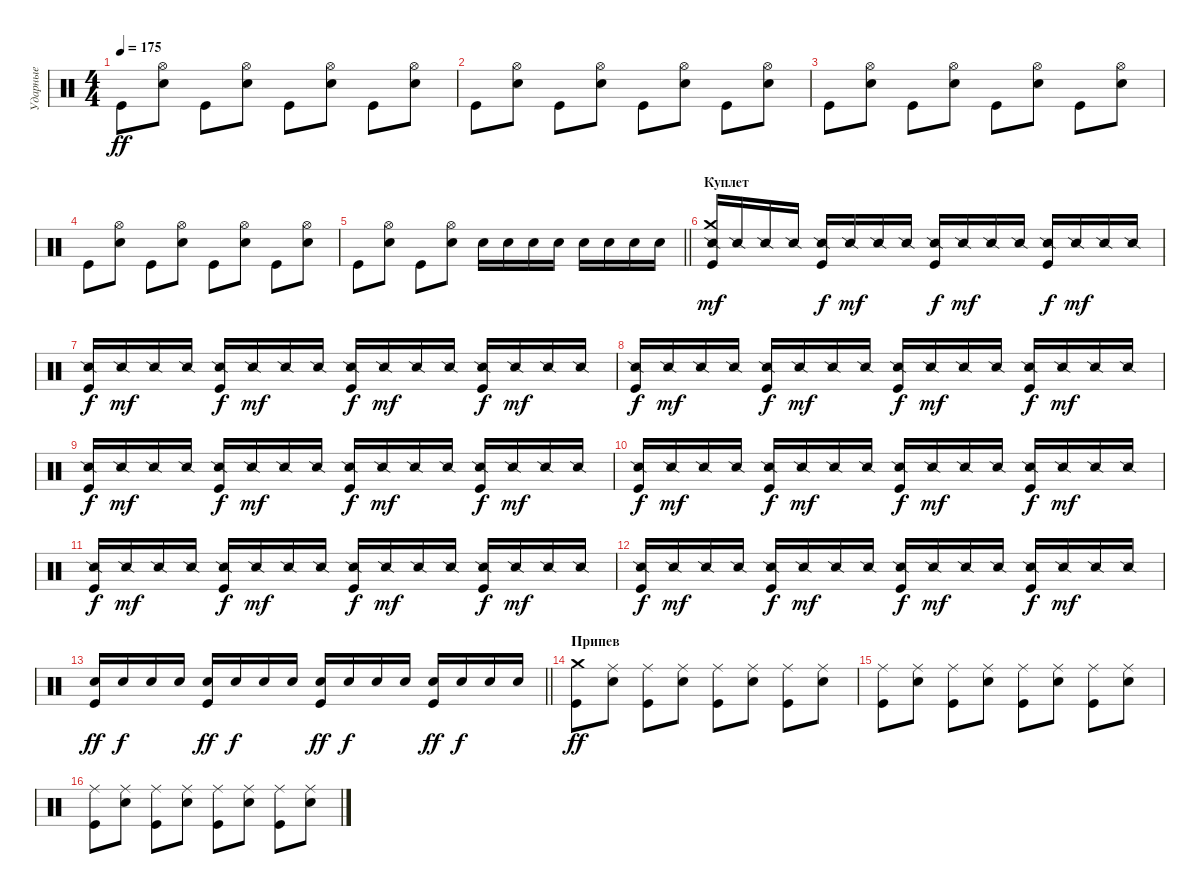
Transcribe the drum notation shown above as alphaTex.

\track ("Ударные" "Ударные") {instrument percussion}
\staff {score}
\articulation defaults
\ts (4 4)
\tempo 175
\clef neutral
\ks c "Kick (hit)".8{dy ff}
("Hi-Hat (open)" "Electric Snare (hit)").8 "Kick (hit)".8 ("Hi-Hat (open)" "Electric Snare (hit)").8 "Kick (hit)".8 ("Hi-Hat (open)" "Electric Snare (hit)").8 "Kick (hit)".8 ("Hi-Hat (open)" "Electric Snare (hit)").8 |
"Kick (hit)".8 ("Hi-Hat (open)" "Electric Snare (hit)").8 "Kick (hit)".8 ("Hi-Hat (open)" "Electric Snare (hit)").8 "Kick (hit)".8 ("Hi-Hat (open)" "Electric Snare (hit)").8 "Kick (hit)".8 ("Hi-Hat (open)" "Electric Snare (hit)").8 |
"Kick (hit)".8 ("Hi-Hat (open)" "Electric Snare (hit)").8 "Kick (hit)".8 ("Hi-Hat (open)" "Electric Snare (hit)").8 "Kick (hit)".8 ("Hi-Hat (open)" "Electric Snare (hit)").8 "Kick (hit)".8 ("Hi-Hat (open)" "Electric Snare (hit)").8 |
"Kick (hit)".8 ("Hi-Hat (open)" "Electric Snare (hit)").8 "Kick (hit)".8 ("Hi-Hat (open)" "Electric Snare (hit)").8 "Kick (hit)".8 ("Hi-Hat (open)" "Electric Snare (hit)").8 "Kick (hit)".8 ("Hi-Hat (open)" "Electric Snare (hit)").8 |
\barLineRight lightlight "Kick (hit)".8
("Hi-Hat (open)" "Electric Snare (hit)").8 "Kick (hit)".8 ("Hi-Hat (open)" "Electric Snare (hit)").8 "Electric Snare (hit)".16 "Electric Snare (hit)".16 "Electric Snare (hit)".16 "Electric Snare (hit)".16 "Electric Snare (hit)".16 "Electric Snare (hit)".16 "Electric Snare (hit)".16 "Electric Snare (hit)".16 |
\section ("" "Куплет")
("Crash medium (hit)" "Snare (side stick) 2" "Kick (hit)").16{dy mf} "Snare (side stick) 2".16 "Snare (side stick) 2".16 "Snare (side stick) 2".16 ("Snare (side stick) 2" "Kick (hit)").16{dy f} "Snare (side stick) 2".16{dy mf} "Snare (side stick) 2".16 "Snare (side stick) 2".16 ("Snare (side stick) 2" "Kick (hit)").16{dy f} "Snare (side stick) 2".16{dy mf} "Snare (side stick) 2".16 "Snare (side stick) 2".16 ("Snare (side stick) 2" "Kick (hit)").16{dy f} "Snare (side stick) 2".16{dy mf} "Snare (side stick) 2".16 "Snare (side stick) 2".16 |
("Snare (side stick) 2" "Kick (hit)").16{dy f} "Snare (side stick) 2".16{dy mf} "Snare (side stick) 2".16 "Snare (side stick) 2".16 ("Snare (side stick) 2" "Kick (hit)").16{dy f} "Snare (side stick) 2".16{dy mf} "Snare (side stick) 2".16 "Snare (side stick) 2".16 ("Snare (side stick) 2" "Kick (hit)").16{dy f} "Snare (side stick) 2".16{dy mf} "Snare (side stick) 2".16 "Snare (side stick) 2".16 ("Snare (side stick) 2" "Kick (hit)").16{dy f} "Snare (side stick) 2".16{dy mf} "Snare (side stick) 2".16 "Snare (side stick) 2".16 |
("Snare (side stick) 2" "Kick (hit)").16{dy f} "Snare (side stick) 2".16{dy mf} "Snare (side stick) 2".16 "Snare (side stick) 2".16 ("Snare (side stick) 2" "Kick (hit)").16{dy f} "Snare (side stick) 2".16{dy mf} "Snare (side stick) 2".16 "Snare (side stick) 2".16 ("Snare (side stick) 2" "Kick (hit)").16{dy f} "Snare (side stick) 2".16{dy mf} "Snare (side stick) 2".16 "Snare (side stick) 2".16 ("Snare (side stick) 2" "Kick (hit)").16{dy f} "Snare (side stick) 2".16{dy mf} "Snare (side stick) 2".16 "Snare (side stick) 2".16 |
("Snare (side stick) 2" "Kick (hit)").16{dy f} "Snare (side stick) 2".16{dy mf} "Snare (side stick) 2".16 "Snare (side stick) 2".16 ("Snare (side stick) 2" "Kick (hit)").16{dy f} "Snare (side stick) 2".16{dy mf} "Snare (side stick) 2".16 "Snare (side stick) 2".16 ("Snare (side stick) 2" "Kick (hit)").16{dy f} "Snare (side stick) 2".16{dy mf} "Snare (side stick) 2".16 "Snare (side stick) 2".16 ("Snare (side stick) 2" "Kick (hit)").16{dy f} "Snare (side stick) 2".16{dy mf} "Snare (side stick) 2".16 "Snare (side stick) 2".16 |
("Snare (side stick) 2" "Kick (hit)").16{dy f} "Snare (side stick) 2".16{dy mf} "Snare (side stick) 2".16 "Snare (side stick) 2".16 ("Snare (side stick) 2" "Kick (hit)").16{dy f} "Snare (side stick) 2".16{dy mf} "Snare (side stick) 2".16 "Snare (side stick) 2".16 ("Snare (side stick) 2" "Kick (hit)").16{dy f} "Snare (side stick) 2".16{dy mf} "Snare (side stick) 2".16 "Snare (side stick) 2".16 ("Snare (side stick) 2" "Kick (hit)").16{dy f} "Snare (side stick) 2".16{dy mf} "Snare (side stick) 2".16 "Snare (side stick) 2".16 |
("Snare (side stick) 2" "Kick (hit)").16{dy f} "Snare (side stick) 2".16{dy mf} "Snare (side stick) 2".16 "Snare (side stick) 2".16 ("Snare (side stick) 2" "Kick (hit)").16{dy f} "Snare (side stick) 2".16{dy mf} "Snare (side stick) 2".16 "Snare (side stick) 2".16 ("Snare (side stick) 2" "Kick (hit)").16{dy f} "Snare (side stick) 2".16{dy mf} "Snare (side stick) 2".16 "Snare (side stick) 2".16 ("Snare (side stick) 2" "Kick (hit)").16{dy f} "Snare (side stick) 2".16{dy mf} "Snare (side stick) 2".16 "Snare (side stick) 2".16 |
("Snare (side stick) 2" "Kick (hit)").16{dy f} "Snare (side stick) 2".16{dy mf} "Snare (side stick) 2".16 "Snare (side stick) 2".16 ("Snare (side stick) 2" "Kick (hit)").16{dy f} "Snare (side stick) 2".16{dy mf} "Snare (side stick) 2".16 "Snare (side stick) 2".16 ("Snare (side stick) 2" "Kick (hit)").16{dy f} "Snare (side stick) 2".16{dy mf} "Snare (side stick) 2".16 "Snare (side stick) 2".16 ("Snare (side stick) 2" "Kick (hit)").16{dy f} "Snare (side stick) 2".16{dy mf} "Snare (side stick) 2".16 "Snare (side stick) 2".16 |
\barLineRight lightlight
("Electric Snare (hit)" "Kick (hit)").16{dy ff} "Electric Snare (hit)".16{dy f} "Electric Snare (hit)".16 "Electric Snare (hit)".16 ("Electric Snare (hit)" "Kick (hit)").16{dy ff} "Electric Snare (hit)".16{dy f} "Electric Snare (hit)".16 "Electric Snare (hit)".16 ("Electric Snare (hit)" "Kick (hit)").16{dy ff} "Electric Snare (hit)".16{dy f} "Electric Snare (hit)".16 "Electric Snare (hit)".16 ("Electric Snare (hit)" "Kick (hit)").16{dy ff} "Electric Snare (hit)".16{dy f} "Electric Snare (hit)".16 "Electric Snare (hit)".16 |
\section ("" "Припев")
("Crash medium (hit)" "Kick (hit)").8{dy ff} ("Ride (middle)" "Electric Snare (hit)").8 ("Ride (middle)" "Kick (hit)").8 ("Ride (middle)" "Electric Snare (hit)").8 ("Ride (middle)" "Kick (hit)").8 ("Ride (middle)" "Electric Snare (hit)").8 ("Ride (middle)" "Kick (hit)").8 ("Ride (middle)" "Electric Snare (hit)").8 |
("Ride (middle)" "Kick (hit)").8 ("Ride (middle)" "Electric Snare (hit)").8 ("Ride (middle)" "Kick (hit)").8 ("Ride (middle)" "Electric Snare (hit)").8 ("Ride (middle)" "Kick (hit)").8 ("Ride (middle)" "Electric Snare (hit)").8 ("Ride (middle)" "Kick (hit)").8 ("Ride (middle)" "Electric Snare (hit)").8 |
("Ride (middle)" "Kick (hit)").8 ("Ride (middle)" "Electric Snare (hit)").8 ("Ride (middle)" "Kick (hit)").8 ("Ride (middle)" "Electric Snare (hit)").8 ("Ride (middle)" "Kick (hit)").8 ("Ride (middle)" "Electric Snare (hit)").8 ("Ride (middle)" "Kick (hit)").8 ("Ride (middle)" "Electric Snare (hit)").8
